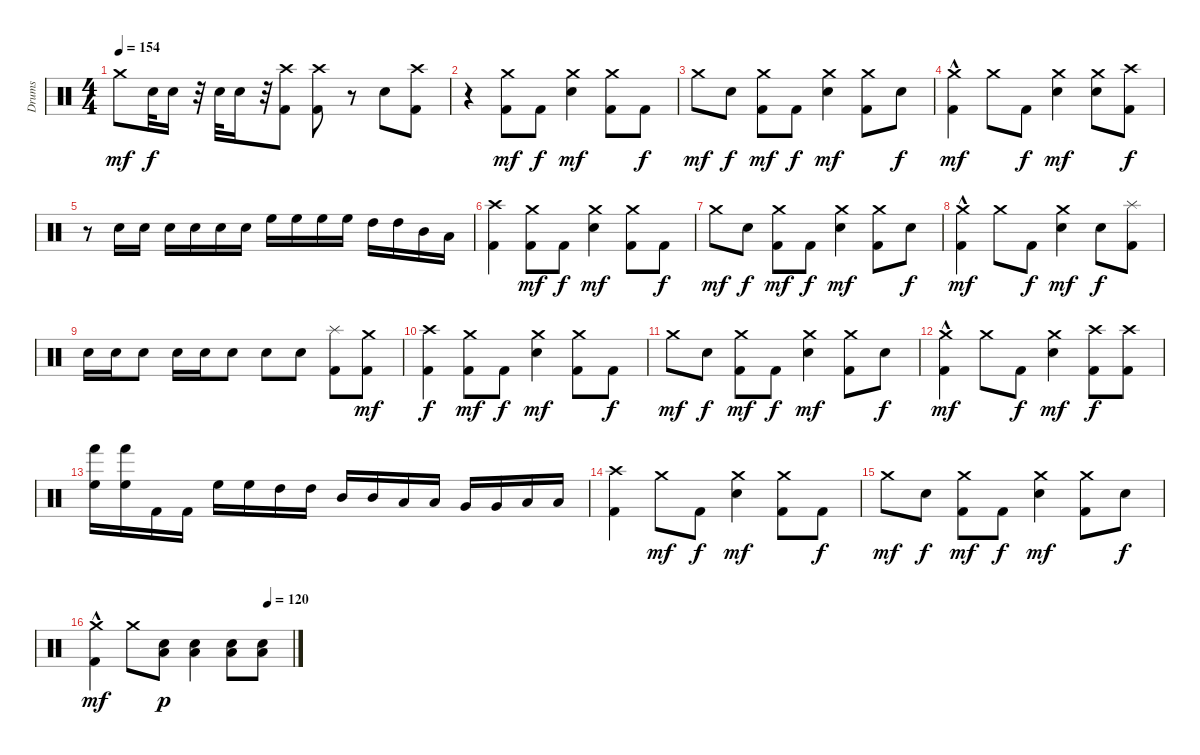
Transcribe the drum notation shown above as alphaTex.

\track ("Drums" "Drums") {instrument percussion}
\staff {score}
\articulation defaults
\ts (4 4)
\tempo 154
\clef neutral
\ks c "Crash medium (hit)".8{dy mf} "Electric Snare (hit)".32{dy f} "Electric Snare (hit)".16
r.32 "Electric Snare (hit)".32 "Electric Snare (hit)".16 r.32 ("Kick (hit) 2" "Crash high (hit)").8 ("Kick (hit) 2" "Crash high (hit)").8 r.8 "Electric Snare (hit)".8 ("Crash high (hit)" "Kick (hit) 2").8 |
r.4 ("Kick (hit) 2" "Crash medium (hit)").8{dy mf} "Kick (hit) 2".8{dy f} ("Electric Snare (hit)" "Crash medium (hit)").4{dy mf} ("Kick (hit) 2" "Crash medium (hit)").8 "Kick (hit) 2".8{dy f} |
"Crash medium (hit)".8{dy mf} "Electric Snare (hit)".8{dy f} ("Kick (hit) 2" "Crash medium (hit)").8{dy mf} "Kick (hit) 2".8{dy f} ("Electric Snare (hit)" "Crash medium (hit)").4{dy mf} ("Kick (hit) 2" "Crash medium (hit)").8 "Electric Snare (hit)".8{dy f} |
("Kick (hit) 2"{hac} "Crash medium (hit)").4{dy mf} "Crash medium (hit)".8 "Kick (hit) 2".8{dy f} ("Electric Snare (hit)" "Crash medium (hit)").4{dy mf} ("Electric Snare (hit)" "Crash medium (hit)").8 ("Kick (hit) 2" "Crash high (hit)").8{dy f} |
r.8 "Electric Snare (hit)".16 "Electric Snare (hit)".16 "Electric Snare (hit)".16 "Electric Snare (hit)".16 "Electric Snare (hit)".16 "Electric Snare (hit)".16 "High Floor Tom (hit)".16 "High Floor Tom (hit)".16 "High Floor Tom (hit)".16 "High Floor Tom (hit)".16 "High Tom (hit)".16 "High Tom (hit)".16 "Mid Tom (hit)".16 "Low Tom (hit)".16 |
("Crash high (hit)" "Kick (hit) 2").4 ("Kick (hit) 2" "Crash medium (hit)").8{dy mf} "Kick (hit) 2".8{dy f} ("Electric Snare (hit)" "Crash medium (hit)").4{dy mf} ("Kick (hit) 2" "Crash medium (hit)").8 "Kick (hit) 2".8{dy f} |
"Crash medium (hit)".8{dy mf} "Electric Snare (hit)".8{dy f} ("Kick (hit) 2" "Crash medium (hit)").8{dy mf} "Kick (hit) 2".8{dy f} ("Electric Snare (hit)" "Crash medium (hit)").4{dy mf} ("Kick (hit) 2" "Crash medium (hit)").8 "Electric Snare (hit)".8{dy f} |
("Kick (hit) 2"{hac} "Crash medium (hit)").4{dy mf} "Crash medium (hit)".8 "Kick (hit) 2".8{dy f} ("Electric Snare (hit)" "Crash medium (hit)").4{dy mf} "Electric Snare (hit)".8{dy f} ("Kick (hit) 2" "Splash (hit)").8 |
"Electric Snare (hit)".16 "Electric Snare (hit)".16 "Electric Snare (hit)".8 "Electric Snare (hit)".16 "Electric Snare (hit)".16 "Electric Snare (hit)".8 "Electric Snare (hit)".8 "Electric Snare (hit)".8 ("Kick (hit) 2" "Splash (hit)").8 ("Kick (hit) 2" "Crash medium (hit)").8{dy mf} |
("Kick (hit) 2" "Crash high (hit)").4{dy f} ("Kick (hit) 2" "Crash medium (hit)").8{dy mf} "Kick (hit) 2".8{dy f} ("Electric Snare (hit)" "Crash medium (hit)").4{dy mf} ("Kick (hit) 2" "Crash medium (hit)").8 "Kick (hit) 2".8{dy f} |
"Crash medium (hit)".8{dy mf} "Electric Snare (hit)".8{dy f} ("Kick (hit) 2" "Crash medium (hit)").8{dy mf} "Kick (hit) 2".8{dy f} ("Electric Snare (hit)" "Crash medium (hit)").4{dy mf} ("Kick (hit) 2" "Crash medium (hit)").8 "Electric Snare (hit)".8{dy f} |
("Kick (hit) 2"{hac} "Crash medium (hit)").4{dy mf} "Crash medium (hit)".8 "Kick (hit) 2".8{dy f} ("Electric Snare (hit)" "Crash medium (hit)").4{dy mf} ("Kick (hit) 2" "Crash high (hit)").8{dy f} ("Kick (hit) 2" "Crash high (hit)").8 |
("High Floor Tom (hit)" "Hand (hit)").16 ("High Floor Tom (hit)" "Hand (hit)").16 "Kick (hit) 2".16 "Kick (hit) 2".16 "High Floor Tom (hit)".16 "High Floor Tom (hit)".16 "High Tom (hit)".16 "High Tom (hit)".16 "Mid Tom (hit)".16 "Mid Tom (hit)".16 "Low Tom (hit)".16 "Low Tom (hit)".16 "Very Low Tom (hit)".16 "Very Low Tom (hit)".16 "Low Floor Tom (hit)".16 "Low Floor Tom (hit)".16 |
("Crash high (hit)" "Kick (hit) 2").4 "Crash medium (hit)".8{dy mf} "Kick (hit) 2".8{dy f} ("Electric Snare (hit)" "Crash medium (hit)").4{dy mf} ("Kick (hit) 2" "Crash medium (hit)").8 "Kick (hit) 2".8{dy f} |
"Crash medium (hit)".8{dy mf} "Electric Snare (hit)".8{dy f} ("Kick (hit) 2" "Crash medium (hit)").8{dy mf} "Kick (hit) 2".8{dy f} ("Electric Snare (hit)" "Crash medium (hit)").4{dy mf} ("Kick (hit) 2" "Crash medium (hit)").8 "Electric Snare (hit)".8{dy f} |
\tempo (120 0.875)
("Kick (hit) 2"{hac} "Crash medium (hit)").4{dy mf} "Crash medium (hit)".8 ("Electric Snare (hit)" "Low Tom (hit)").8{dy p} ("Electric Snare (hit)" "Low Tom (hit)").4 ("Electric Snare (hit)" "Low Tom (hit)").8 ("Electric Snare (hit)" "Low Tom (hit)").8
